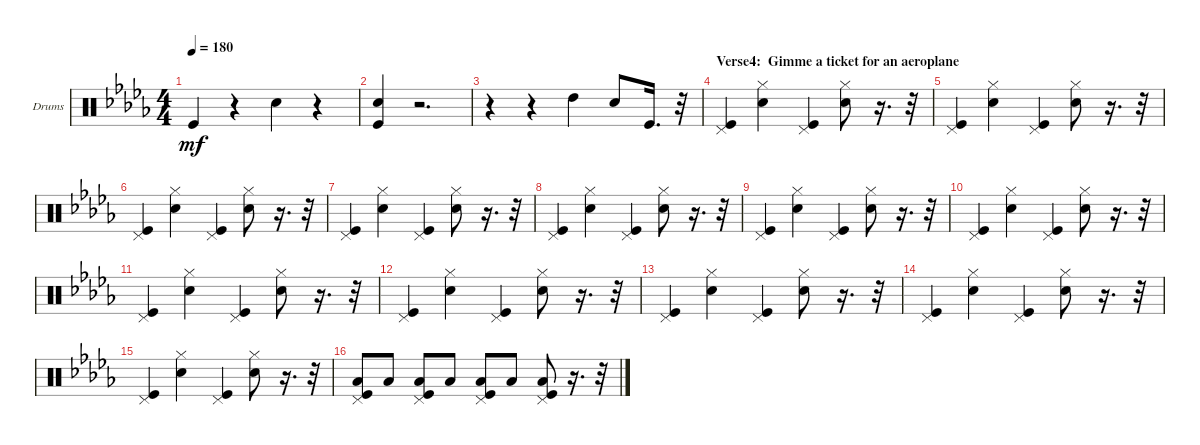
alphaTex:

\bracketExtendMode groupsimilarinstruments
\firstSystemTrackNameOrientation horizontal
\otherSystemsTrackNameOrientation horizontal
\track ("Drums" "Drums") {instrument percussion}
\staff {score}
\articulation defaults
\ts (4 4)
\tempo 180
\clef neutral
\ks bbminor "Kick (hit)".4{dy mf}
r.4 "Snare (hit) 2".4 r.4 |
("Kick (hit)" "Snare (hit) 2").4 r.2{d} |
r.4 r.4 "High Tom (hit)".4 "Snare (hit) 2".8 "Kick (hit)".16{d} r.32 |
\section ("" "Verse4:  Gimme a ticket for an aeroplane")
("Kick (hit)" "Pedal Hi-Hat (hit)").4 ("Snare (hit) 2" "Hi-Hat (closed)").4 ("Kick (hit)" "Pedal Hi-Hat (hit)").4 ("Snare (hit) 2" "Hi-Hat (closed)").8 r.16{d} r.32 |
("Kick (hit)" "Pedal Hi-Hat (hit)").4 ("Snare (hit) 2" "Hi-Hat (closed)").4 ("Kick (hit)" "Pedal Hi-Hat (hit)").4 ("Snare (hit) 2" "Hi-Hat (closed)").8 r.16{d} r.32 |
("Kick (hit)" "Pedal Hi-Hat (hit)").4 ("Snare (hit) 2" "Hi-Hat (closed)").4 ("Kick (hit)" "Pedal Hi-Hat (hit)").4 ("Snare (hit) 2" "Hi-Hat (closed)").8 r.16{d} r.32 |
("Kick (hit)" "Pedal Hi-Hat (hit)").4 ("Snare (hit) 2" "Hi-Hat (closed)").4 ("Kick (hit)" "Pedal Hi-Hat (hit)").4 ("Snare (hit) 2" "Hi-Hat (closed)").8 r.16{d} r.32 |
("Kick (hit)" "Pedal Hi-Hat (hit)").4 ("Snare (hit) 2" "Hi-Hat (closed)").4 ("Kick (hit)" "Pedal Hi-Hat (hit)").4 ("Snare (hit) 2" "Hi-Hat (closed)").8 r.16{d} r.32 |
("Kick (hit)" "Pedal Hi-Hat (hit)").4 ("Snare (hit) 2" "Hi-Hat (closed)").4 ("Kick (hit)" "Pedal Hi-Hat (hit)").4 ("Snare (hit) 2" "Hi-Hat (closed)").8 r.16{d} r.32 |
("Kick (hit)" "Pedal Hi-Hat (hit)").4 ("Snare (hit) 2" "Hi-Hat (closed)").4 ("Kick (hit)" "Pedal Hi-Hat (hit)").4 ("Snare (hit) 2" "Hi-Hat (closed)").8 r.16{d} r.32 |
("Kick (hit)" "Pedal Hi-Hat (hit)").4 ("Snare (hit) 2" "Hi-Hat (closed)").4 ("Kick (hit)" "Pedal Hi-Hat (hit)").4 ("Snare (hit) 2" "Hi-Hat (closed)").8 r.16{d} r.32 |
("Kick (hit)" "Pedal Hi-Hat (hit)").4 ("Snare (hit) 2" "Hi-Hat (closed)").4 ("Kick (hit)" "Pedal Hi-Hat (hit)").4 ("Snare (hit) 2" "Hi-Hat (closed)").8 r.16{d} r.32 |
("Kick (hit)" "Pedal Hi-Hat (hit)").4 ("Snare (hit) 2" "Hi-Hat (closed)").4 ("Kick (hit)" "Pedal Hi-Hat (hit)").4 ("Snare (hit) 2" "Hi-Hat (closed)").8 r.16{d} r.32 |
("Kick (hit)" "Pedal Hi-Hat (hit)").4 ("Snare (hit) 2" "Hi-Hat (closed)").4 ("Kick (hit)" "Pedal Hi-Hat (hit)").4 ("Snare (hit) 2" "Hi-Hat (closed)").8 r.16{d} r.32 |
("Kick (hit)" "Pedal Hi-Hat (hit)").4 ("Snare (hit) 2" "Hi-Hat (closed)").4 ("Kick (hit)" "Pedal Hi-Hat (hit)").4 ("Snare (hit) 2" "Hi-Hat (closed)").8 r.16{d} r.32 |
("Kick (hit)" "Pedal Hi-Hat (hit)" "Low Tom (hit)").8 "Low Tom (hit)".8 ("Kick (hit)" "Low Tom (hit)" "Pedal Hi-Hat (hit)").8 "Low Tom (hit)".8 ("Kick (hit)" "Pedal Hi-Hat (hit)" "Low Tom (hit)").8 "Low Tom (hit)".8 ("Kick (hit)" "Pedal Hi-Hat (hit)" "Low Tom (hit)").8 r.16{d} r.32
